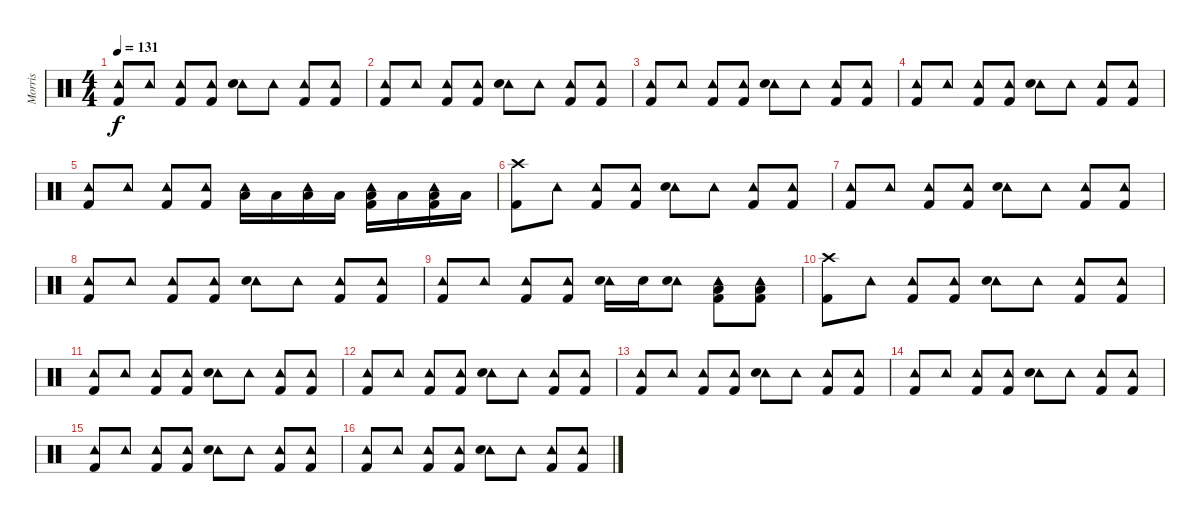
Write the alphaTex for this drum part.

\track ("Morris" "Morris") {instrument percussion}
\staff {score}
\articulation defaults
\ts (4 4)
\tempo 131
\clef neutral
\ks c
("Tambourine (hit)" "Kick (hit) 2").8{dy f} "Tambourine (hit)".8 ("Tambourine (hit)" "Kick (hit) 2").8 ("Tambourine (hit)" "Kick (hit) 2").8 ("Tambourine (hit)" "Electric Snare (hit)").8 "Tambourine (hit)".8 ("Tambourine (hit)" "Kick (hit) 2").8 ("Tambourine (hit)" "Kick (hit) 2").8 |
("Tambourine (hit)" "Kick (hit) 2").8 "Tambourine (hit)".8 ("Tambourine (hit)" "Kick (hit) 2").8 ("Tambourine (hit)" "Kick (hit) 2").8 ("Tambourine (hit)" "Electric Snare (hit)").8 "Tambourine (hit)".8 ("Tambourine (hit)" "Kick (hit) 2").8 ("Tambourine (hit)" "Kick (hit) 2").8 |
("Tambourine (hit)" "Kick (hit) 2").8 "Tambourine (hit)".8 ("Tambourine (hit)" "Kick (hit) 2").8 ("Tambourine (hit)" "Kick (hit) 2").8 ("Tambourine (hit)" "Electric Snare (hit)").8 "Tambourine (hit)".8 ("Tambourine (hit)" "Kick (hit) 2").8 ("Tambourine (hit)" "Kick (hit) 2").8 |
("Tambourine (hit)" "Kick (hit) 2").8 "Tambourine (hit)".8 ("Tambourine (hit)" "Kick (hit) 2").8 ("Tambourine (hit)" "Kick (hit) 2").8 ("Tambourine (hit)" "Electric Snare (hit)").8 "Tambourine (hit)".8 ("Tambourine (hit)" "Kick (hit) 2").8 ("Tambourine (hit)" "Kick (hit) 2").8 |
("Tambourine (hit)" "Kick (hit) 2").8 "Tambourine (hit)".8 ("Tambourine (hit)" "Kick (hit) 2").8 ("Tambourine (hit)" "Kick (hit) 2").8 ("Tambourine (hit)" "Low Floor Tom (hit)").16 "Low Floor Tom (hit)".16 ("Tambourine (hit)" "Low Floor Tom (hit)").16 "Low Floor Tom (hit)".16 ("Tambourine (hit)" "Low Floor Tom (hit)" "Kick (hit) 2").16 "Low Floor Tom (hit)".16 ("Tambourine (hit)" "Low Floor Tom (hit)" "Kick (hit) 2").16 "Low Floor Tom (hit)".16 |
("Crash high (hit)" "Kick (hit) 2").8 "Tambourine (hit)".8 ("Tambourine (hit)" "Kick (hit) 2").8 ("Tambourine (hit)" "Kick (hit) 2").8 ("Tambourine (hit)" "Electric Snare (hit)").8 "Tambourine (hit)".8 ("Tambourine (hit)" "Kick (hit) 2").8 ("Tambourine (hit)" "Kick (hit) 2").8 |
("Tambourine (hit)" "Kick (hit) 2").8 "Tambourine (hit)".8 ("Tambourine (hit)" "Kick (hit) 2").8 ("Tambourine (hit)" "Kick (hit) 2").8 ("Tambourine (hit)" "Electric Snare (hit)").8 "Tambourine (hit)".8 ("Tambourine (hit)" "Kick (hit) 2").8 ("Tambourine (hit)" "Kick (hit) 2").8 |
("Tambourine (hit)" "Kick (hit) 2").8 "Tambourine (hit)".8 ("Tambourine (hit)" "Kick (hit) 2").8 ("Tambourine (hit)" "Kick (hit) 2").8 ("Tambourine (hit)" "Electric Snare (hit)").8 "Tambourine (hit)".8 ("Tambourine (hit)" "Kick (hit) 2").8 ("Tambourine (hit)" "Kick (hit) 2").8 |
("Tambourine (hit)" "Kick (hit) 2").8 "Tambourine (hit)".8 ("Tambourine (hit)" "Kick (hit) 2").8 ("Tambourine (hit)" "Kick (hit) 2").8 ("Tambourine (hit)" "Electric Snare (hit)").16 "Electric Snare (hit)".16 ("Tambourine (hit)" "Electric Snare (hit)").8 ("Tambourine (hit)" "Low Floor Tom (hit)" "Kick (hit) 2").8 ("Tambourine (hit)" "Low Floor Tom (hit)" "Kick (hit) 2").8 |
("Crash high (hit)" "Kick (hit) 2").8 "Tambourine (hit)".8 ("Tambourine (hit)" "Kick (hit) 2").8 ("Tambourine (hit)" "Kick (hit) 2").8 ("Tambourine (hit)" "Electric Snare (hit)").8 "Tambourine (hit)".8 ("Tambourine (hit)" "Kick (hit) 2").8 ("Tambourine (hit)" "Kick (hit) 2").8 |
("Tambourine (hit)" "Kick (hit) 2").8 "Tambourine (hit)".8 ("Tambourine (hit)" "Kick (hit) 2").8 ("Tambourine (hit)" "Kick (hit) 2").8 ("Tambourine (hit)" "Electric Snare (hit)").8 "Tambourine (hit)".8 ("Tambourine (hit)" "Kick (hit) 2").8 ("Tambourine (hit)" "Kick (hit) 2").8 |
("Tambourine (hit)" "Kick (hit) 2").8 "Tambourine (hit)".8 ("Tambourine (hit)" "Kick (hit) 2").8 ("Tambourine (hit)" "Kick (hit) 2").8 ("Tambourine (hit)" "Electric Snare (hit)").8 "Tambourine (hit)".8 ("Tambourine (hit)" "Kick (hit) 2").8 ("Tambourine (hit)" "Kick (hit) 2").8 |
("Tambourine (hit)" "Kick (hit) 2").8 "Tambourine (hit)".8 ("Tambourine (hit)" "Kick (hit) 2").8 ("Tambourine (hit)" "Kick (hit) 2").8 ("Tambourine (hit)" "Electric Snare (hit)").8 "Tambourine (hit)".8 ("Tambourine (hit)" "Kick (hit) 2").8 ("Tambourine (hit)" "Kick (hit) 2").8 |
("Tambourine (hit)" "Kick (hit) 2").8 "Tambourine (hit)".8 ("Tambourine (hit)" "Kick (hit) 2").8 ("Tambourine (hit)" "Kick (hit) 2").8 ("Tambourine (hit)" "Electric Snare (hit)").8 "Tambourine (hit)".8 ("Tambourine (hit)" "Kick (hit) 2").8 ("Tambourine (hit)" "Kick (hit) 2").8 |
("Tambourine (hit)" "Kick (hit) 2").8 "Tambourine (hit)".8 ("Tambourine (hit)" "Kick (hit) 2").8 ("Tambourine (hit)" "Kick (hit) 2").8 ("Tambourine (hit)" "Electric Snare (hit)").8 "Tambourine (hit)".8 ("Tambourine (hit)" "Kick (hit) 2").8 ("Tambourine (hit)" "Kick (hit) 2").8 |
("Tambourine (hit)" "Kick (hit) 2").8 "Tambourine (hit)".8 ("Tambourine (hit)" "Kick (hit) 2").8 ("Tambourine (hit)" "Kick (hit) 2").8 ("Tambourine (hit)" "Electric Snare (hit)").8 "Tambourine (hit)".8 ("Tambourine (hit)" "Kick (hit) 2").8 ("Tambourine (hit)" "Kick (hit) 2").8
